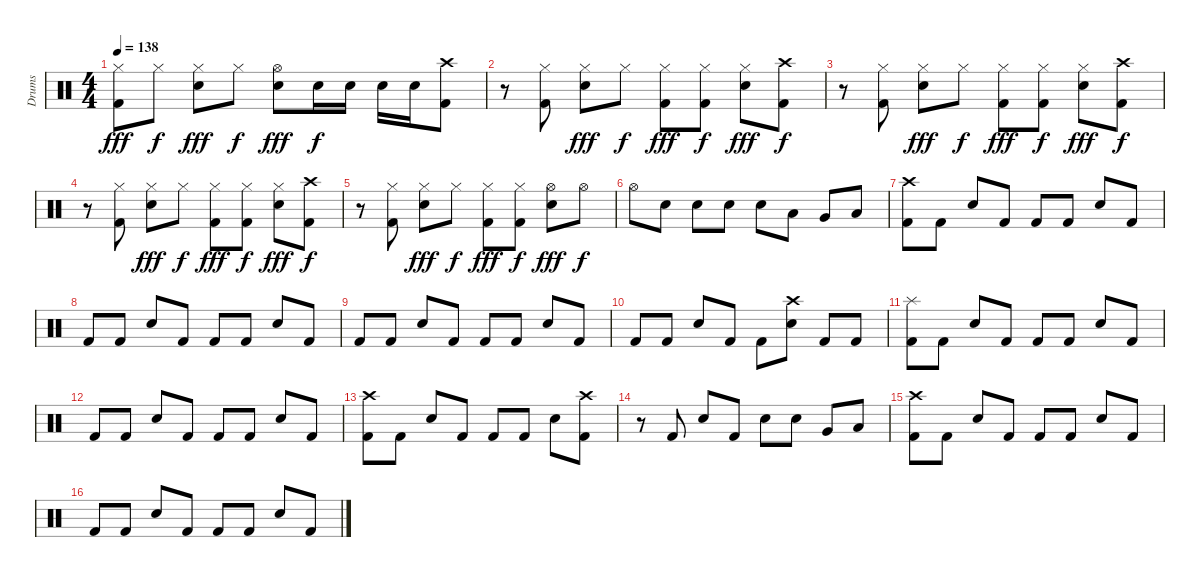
\track ("Drums" "Drums") {instrument percussion}
\staff {score}
\articulation defaults
\ts (4 4)
\tempo 138
\clef neutral
\ks c
("Hi-Hat (closed)" "Kick (hit) 2").8{dy fff} "Hi-Hat (closed)".8{dy f} ("Hi-Hat (closed)" "Snare (hit) 2").8{dy fff} "Hi-Hat (closed)".8{dy f} ("Hi-Hat (open)" "Snare (hit) 2").8{dy fff} "Snare (hit) 2".16{dy f} "Snare (hit) 2".16 "Snare (hit) 2".16 "Snare (hit) 2".16 ("Crash high (hit)" "Kick (hit) 2").8 |
r.8 ("Hi-Hat (closed)" "Kick (hit) 2").8 ("Hi-Hat (closed)" "Snare (hit) 2").8{dy fff} "Hi-Hat (closed)".8{dy f} ("Hi-Hat (closed)" "Kick (hit) 2").8{dy fff} ("Hi-Hat (closed)" "Kick (hit) 2").8{dy f} ("Hi-Hat (closed)" "Snare (hit) 2").8{dy fff} ("Crash high (hit)" "Kick (hit) 2").8{dy f} |
r.8 ("Hi-Hat (closed)" "Kick (hit) 2").8 ("Hi-Hat (closed)" "Snare (hit) 2").8{dy fff} "Hi-Hat (closed)".8{dy f} ("Hi-Hat (closed)" "Kick (hit) 2").8{dy fff} ("Hi-Hat (closed)" "Kick (hit) 2").8{dy f} ("Hi-Hat (closed)" "Snare (hit) 2").8{dy fff} ("Crash high (hit)" "Kick (hit) 2").8{dy f} |
r.8 ("Hi-Hat (closed)" "Kick (hit) 2").8 ("Hi-Hat (closed)" "Snare (hit) 2").8{dy fff} "Hi-Hat (closed)".8{dy f} ("Hi-Hat (closed)" "Kick (hit) 2").8{dy fff} ("Hi-Hat (closed)" "Kick (hit) 2").8{dy f} ("Hi-Hat (closed)" "Snare (hit) 2").8{dy fff} ("Crash high (hit)" "Kick (hit) 2").8{dy f} |
r.8 ("Hi-Hat (closed)" "Kick (hit) 2").8 ("Hi-Hat (closed)" "Snare (hit) 2").8{dy fff} "Hi-Hat (closed)".8{dy f} ("Hi-Hat (closed)" "Kick (hit) 2").8{dy fff} ("Hi-Hat (closed)" "Kick (hit) 2").8{dy f} ("Hi-Hat (open)" "Snare (hit) 2").8{dy fff} "Hi-Hat (open)".8{dy f} |
"Hi-Hat (open)".8 "Snare (hit) 2".8 "Snare (hit) 2".8 "Snare (hit) 2".8 "Snare (hit) 2".8 "Low Tom (hit)".8 "Very Low Tom (hit)".8 "Low Floor Tom (hit)".8 |
("Crash high (hit)" "Kick (hit) 2").8 "Kick (hit) 2".8 "Snare (hit) 2".8 "Kick (hit) 2".8 "Kick (hit) 2".8 "Kick (hit) 2".8 "Snare (hit) 2".8 "Kick (hit) 2".8 |
"Kick (hit) 2".8 "Kick (hit) 2".8 "Snare (hit) 2".8 "Kick (hit) 2".8 "Kick (hit) 2".8 "Kick (hit) 2".8 "Snare (hit) 2".8 "Kick (hit) 2".8 |
"Kick (hit) 2".8 "Kick (hit) 2".8 "Snare (hit) 2".8 "Kick (hit) 2".8 "Kick (hit) 2".8 "Kick (hit) 2".8 "Snare (hit) 2".8 "Kick (hit) 2".8 |
"Kick (hit) 2".8 "Kick (hit) 2".8 "Snare (hit) 2".8 "Kick (hit) 2".8 "Kick (hit) 2".8 ("Crash high (hit)" "Snare (hit) 2").8 "Kick (hit) 2".8 "Kick (hit) 2".8 |
("Splash (hit)" "Kick (hit) 2").8 "Kick (hit) 2".8 "Snare (hit) 2".8 "Kick (hit) 2".8 "Kick (hit) 2".8 "Kick (hit) 2".8 "Snare (hit) 2".8 "Kick (hit) 2".8 |
"Kick (hit) 2".8 "Kick (hit) 2".8 "Snare (hit) 2".8 "Kick (hit) 2".8 "Kick (hit) 2".8 "Kick (hit) 2".8 "Snare (hit) 2".8 "Kick (hit) 2".8 |
("Crash high (hit)" "Kick (hit) 2").8 "Kick (hit) 2".8 "Snare (hit) 2".8 "Kick (hit) 2".8 "Kick (hit) 2".8 "Kick (hit) 2".8 "Snare (hit) 2".8 ("Crash high (hit)" "Kick (hit) 2").8 |
r.8 "Kick (hit) 2".8 "Snare (hit) 2".8 "Kick (hit) 2".8 "Snare (hit) 2".8 "Snare (hit) 2".8 "Very Low Tom (hit)".8 "Low Floor Tom (hit)".8 |
("Crash high (hit)" "Kick (hit) 2").8 "Kick (hit) 2".8 "Snare (hit) 2".8 "Kick (hit) 2".8 "Kick (hit) 2".8 "Kick (hit) 2".8 "Snare (hit) 2".8 "Kick (hit) 2".8 |
"Kick (hit) 2".8 "Kick (hit) 2".8 "Snare (hit) 2".8 "Kick (hit) 2".8 "Kick (hit) 2".8 "Kick (hit) 2".8 "Snare (hit) 2".8 "Kick (hit) 2".8
